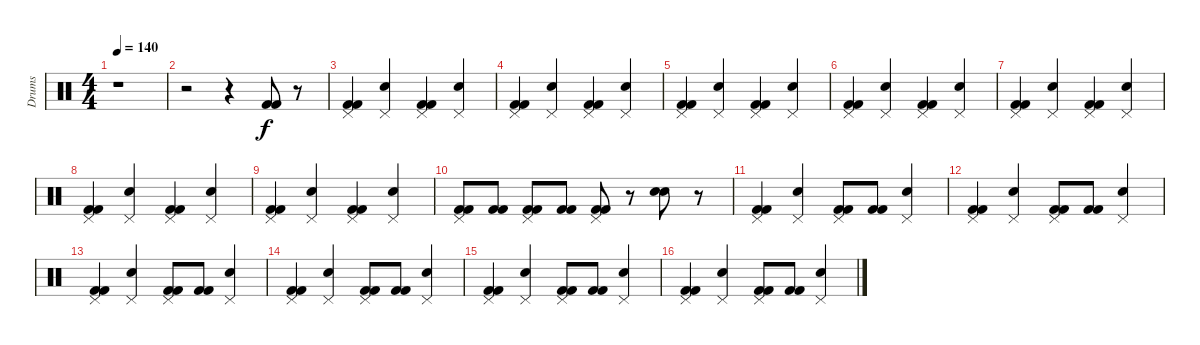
\track ("Drums" "Drums") {instrument percussion}
\staff {score}
\articulation defaults
\ts (4 4)
\tempo 140
\clef neutral
\ks c
r.1{dy f} |
r.2 r.4 ("Kick (hit) 2" "Kick (hit) 2").8 r.8 |
("Pedal Hi-Hat (hit)" "Kick (hit) 2" "Kick (hit) 2").4 ("Pedal Hi-Hat (hit)" "Snare (hit) 2").4 ("Pedal Hi-Hat (hit)" "Kick (hit) 2" "Kick (hit) 2").4 ("Pedal Hi-Hat (hit)" "Snare (hit) 2").4 |
("Pedal Hi-Hat (hit)" "Kick (hit) 2" "Kick (hit) 2").4 ("Pedal Hi-Hat (hit)" "Snare (hit) 2").4 ("Pedal Hi-Hat (hit)" "Kick (hit) 2" "Kick (hit) 2").4 ("Pedal Hi-Hat (hit)" "Snare (hit) 2").4 |
("Pedal Hi-Hat (hit)" "Kick (hit) 2" "Kick (hit) 2").4 ("Pedal Hi-Hat (hit)" "Snare (hit) 2").4 ("Pedal Hi-Hat (hit)" "Kick (hit) 2" "Kick (hit) 2").4 ("Pedal Hi-Hat (hit)" "Snare (hit) 2").4 |
("Pedal Hi-Hat (hit)" "Kick (hit) 2" "Kick (hit) 2").4 ("Pedal Hi-Hat (hit)" "Snare (hit) 2").4 ("Pedal Hi-Hat (hit)" "Kick (hit) 2" "Kick (hit) 2").4 ("Pedal Hi-Hat (hit)" "Snare (hit) 2").4 |
("Pedal Hi-Hat (hit)" "Kick (hit) 2" "Kick (hit) 2").4 ("Pedal Hi-Hat (hit)" "Snare (hit) 2").4 ("Pedal Hi-Hat (hit)" "Kick (hit) 2" "Kick (hit) 2").4 ("Pedal Hi-Hat (hit)" "Snare (hit) 2").4 |
("Pedal Hi-Hat (hit)" "Kick (hit) 2" "Kick (hit) 2").4 ("Pedal Hi-Hat (hit)" "Snare (hit) 2").4 ("Pedal Hi-Hat (hit)" "Kick (hit) 2" "Kick (hit) 2").4 ("Pedal Hi-Hat (hit)" "Snare (hit) 2").4 |
("Pedal Hi-Hat (hit)" "Kick (hit) 2" "Kick (hit) 2").4 ("Pedal Hi-Hat (hit)" "Snare (hit) 2").4 ("Pedal Hi-Hat (hit)" "Kick (hit) 2" "Kick (hit) 2").4 ("Pedal Hi-Hat (hit)" "Snare (hit) 2").4 |
("Pedal Hi-Hat (hit)" "Kick (hit) 2" "Kick (hit) 2").8 ("Kick (hit) 2" "Kick (hit) 2").8 ("Pedal Hi-Hat (hit)" "Kick (hit) 2" "Kick (hit) 2").8 ("Kick (hit) 2" "Kick (hit) 2").8 ("Pedal Hi-Hat (hit)" "Kick (hit) 2" "Kick (hit) 2").8 r.8 ("Hand Clap (hit)" "Snare (hit) 2").8 r.8 |
("Pedal Hi-Hat (hit)" "Kick (hit) 2" "Kick (hit) 2").4 ("Pedal Hi-Hat (hit)" "Snare (hit) 2").4 ("Pedal Hi-Hat (hit)" "Kick (hit) 2" "Kick (hit) 2").8 ("Kick (hit) 2" "Kick (hit) 2").8 ("Pedal Hi-Hat (hit)" "Snare (hit) 2").4 |
("Pedal Hi-Hat (hit)" "Kick (hit) 2" "Kick (hit) 2").4 ("Pedal Hi-Hat (hit)" "Snare (hit) 2").4 ("Pedal Hi-Hat (hit)" "Kick (hit) 2" "Kick (hit) 2").8 ("Kick (hit) 2" "Kick (hit) 2").8 ("Pedal Hi-Hat (hit)" "Snare (hit) 2").4 |
("Pedal Hi-Hat (hit)" "Kick (hit) 2" "Kick (hit) 2").4 ("Pedal Hi-Hat (hit)" "Snare (hit) 2").4 ("Pedal Hi-Hat (hit)" "Kick (hit) 2" "Kick (hit) 2").8 ("Kick (hit) 2" "Kick (hit) 2").8 ("Pedal Hi-Hat (hit)" "Snare (hit) 2").4 |
("Pedal Hi-Hat (hit)" "Kick (hit) 2" "Kick (hit) 2").4 ("Pedal Hi-Hat (hit)" "Snare (hit) 2").4 ("Pedal Hi-Hat (hit)" "Kick (hit) 2" "Kick (hit) 2").8 ("Kick (hit) 2" "Kick (hit) 2").8 ("Pedal Hi-Hat (hit)" "Snare (hit) 2").4 |
("Pedal Hi-Hat (hit)" "Kick (hit) 2" "Kick (hit) 2").4 ("Pedal Hi-Hat (hit)" "Snare (hit) 2").4 ("Pedal Hi-Hat (hit)" "Kick (hit) 2" "Kick (hit) 2").8 ("Kick (hit) 2" "Kick (hit) 2").8 ("Pedal Hi-Hat (hit)" "Snare (hit) 2").4 |
("Pedal Hi-Hat (hit)" "Kick (hit) 2" "Kick (hit) 2").4 ("Pedal Hi-Hat (hit)" "Snare (hit) 2").4 ("Pedal Hi-Hat (hit)" "Kick (hit) 2" "Kick (hit) 2").8 ("Kick (hit) 2" "Kick (hit) 2").8 ("Pedal Hi-Hat (hit)" "Snare (hit) 2").4
